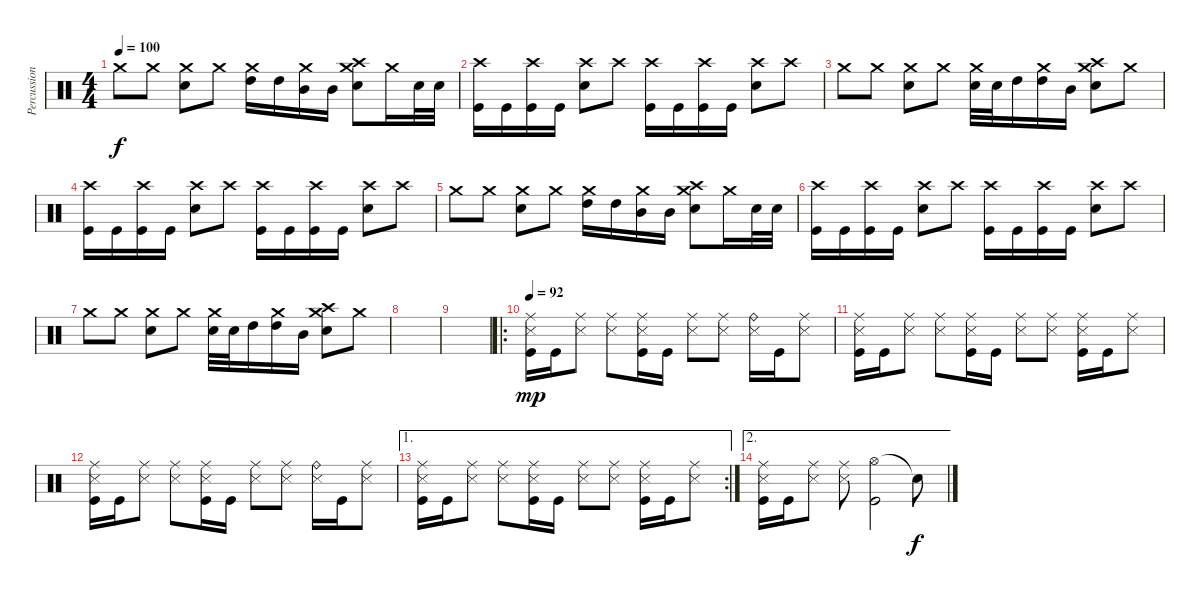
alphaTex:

\track ("Percussion" "Percussion") {instrument percussion}
\staff {score}
\articulation defaults
\ts (4 4)
\tempo 100
\clef neutral
\ks c "Crash medium (hit)".8{dy f} "Crash medium (hit)".8
("Crash medium (hit)" "Electric Snare (hit)").8 "Crash medium (hit)".8 ("Crash medium (hit)" "High Tom (hit)").16 "High Tom (hit)".16 ("Crash medium (hit)" "Mid Tom (hit)").16 "Mid Tom (hit)".16 ("Crash high (hit)" "Crash medium (hit)" "Electric Snare (hit)").8 "Crash medium (hit)".16 "Electric Snare (hit)".32 "Electric Snare (hit)".32 |
("Crash high (hit)" "Kick (hit)").16 "Kick (hit)".16 ("Crash high (hit)" "Kick (hit)").16 "Kick (hit)".16 ("Crash high (hit)" "Electric Snare (hit)").8 "Crash high (hit)".8 ("Crash high (hit)" "Kick (hit)").16 "Kick (hit)".16 ("Crash high (hit)" "Kick (hit)").16 "Kick (hit)".16 ("Crash high (hit)" "Electric Snare (hit)").8 "Crash high (hit)".8 |
"Crash medium (hit)".8 "Crash medium (hit)".8 ("Crash medium (hit)" "Electric Snare (hit)").8 "Crash medium (hit)".8 ("Crash medium (hit)" "Electric Snare (hit)").32 "Electric Snare (hit)".32 "High Tom (hit)".16 ("Crash medium (hit)" "High Tom (hit)").16 "Mid Tom (hit)".16 ("Crash high (hit)" "Crash medium (hit)" "Electric Snare (hit)").8 "Crash medium (hit)".8 |
("Crash high (hit)" "Kick (hit)").16 "Kick (hit)".16 ("Crash high (hit)" "Kick (hit)").16 "Kick (hit)".16 ("Crash high (hit)" "Electric Snare (hit)").8 "Crash high (hit)".8 ("Crash high (hit)" "Kick (hit)").16 "Kick (hit)".16 ("Crash high (hit)" "Kick (hit)").16 "Kick (hit)".16 ("Crash high (hit)" "Electric Snare (hit)").8 "Crash high (hit)".8 |
"Crash medium (hit)".8 "Crash medium (hit)".8 ("Crash medium (hit)" "Electric Snare (hit)").8 "Crash medium (hit)".8 ("Crash medium (hit)" "High Tom (hit)").16 "High Tom (hit)".16 ("Crash medium (hit)" "Mid Tom (hit)").16 "Mid Tom (hit)".16 ("Crash high (hit)" "Crash medium (hit)" "Electric Snare (hit)").8 "Crash medium (hit)".16 "Electric Snare (hit)".32 "Electric Snare (hit)".32 |
("Crash high (hit)" "Kick (hit)").16 "Kick (hit)".16 ("Crash high (hit)" "Kick (hit)").16 "Kick (hit)".16 ("Crash high (hit)" "Electric Snare (hit)").8 "Crash high (hit)".8 ("Crash high (hit)" "Kick (hit)").16 "Kick (hit)".16 ("Crash high (hit)" "Kick (hit)").16 "Kick (hit)".16 ("Crash high (hit)" "Electric Snare (hit)").8 "Crash high (hit)".8 |
"Crash medium (hit)".8 "Crash medium (hit)".8 ("Crash medium (hit)" "Electric Snare (hit)").8 "Crash medium (hit)".8 ("Crash medium (hit)" "Electric Snare (hit)").32 "Electric Snare (hit)".32 "High Tom (hit)".16 ("Crash medium (hit)" "High Tom (hit)").16 "Mid Tom (hit)".16 ("Crash high (hit)" "Crash medium (hit)" "Electric Snare (hit)").8 "Crash medium (hit)".8 |
|
|
\ro
\tempo 92
("Ride (middle)" "Snare (side stick) 3" "Kick (hit)").16{dy mp} "Kick (hit)".16 ("Ride (middle)" "Snare (side stick) 3").8 ("Ride (middle)" "Snare (side stick) 3").8 ("Ride (middle)" "Snare (side stick) 3" "Kick (hit)").16 "Kick (hit)".16 ("Ride (middle)" "Snare (side stick) 3").8 ("Ride (middle)" "Snare (side stick) 3").8 ("Ride (bell)" "Snare (side stick) 3").16 "Kick (hit)".16 ("Ride (middle)" "Snare (side stick) 3").8 |
("Ride (middle)" "Snare (side stick) 3" "Kick (hit)").16 "Kick (hit)".16 ("Ride (middle)" "Snare (side stick) 3").8 ("Ride (middle)" "Snare (side stick) 3").8 ("Ride (middle)" "Snare (side stick) 3" "Kick (hit)").16 "Kick (hit)".16 ("Ride (middle)" "Snare (side stick) 3").8 ("Ride (middle)" "Snare (side stick) 3").8 ("Ride (middle)" "Snare (side stick) 3" "Kick (hit)").16 "Kick (hit)".16 ("Ride (middle)" "Snare (side stick) 3").8 |
("Ride (middle)" "Snare (side stick) 3" "Kick (hit)").16 "Kick (hit)".16 ("Ride (middle)" "Snare (side stick) 3").8 ("Ride (middle)" "Snare (side stick) 3").8 ("Ride (middle)" "Snare (side stick) 3" "Kick (hit)").16 "Kick (hit)".16 ("Ride (middle)" "Snare (side stick) 3").8 ("Ride (middle)" "Snare (side stick) 3").8 ("Ride (bell)" "Snare (side stick) 3").16 "Kick (hit)".16 ("Ride (middle)" "Snare (side stick) 3").8 |
\ae 1
\rc 2
("Ride (middle)" "Snare (side stick) 3" "Kick (hit)").16 "Kick (hit)".16 ("Ride (middle)" "Snare (side stick) 3").8 ("Ride (middle)" "Snare (side stick) 3").8 ("Ride (middle)" "Snare (side stick) 3" "Kick (hit)").16 "Kick (hit)".16 ("Ride (middle)" "Snare (side stick) 3").8 ("Ride (middle)" "Snare (side stick) 3").8 ("Ride (middle)" "Snare (side stick) 3" "Kick (hit)").16 "Kick (hit)".16 ("Ride (middle)" "Snare (side stick) 3").8 |
\ae 2
("Ride (middle)" "Snare (side stick) 3" "Kick (hit)").16 "Kick (hit)".16 ("Ride (middle)" "Snare (side stick) 3").8 ("Ride (middle)" "Snare (side stick) 3").8 ("Hi-Hat (open)" "Kick (hit)").2 "Snare (hit)"{t}.8{dy f}
